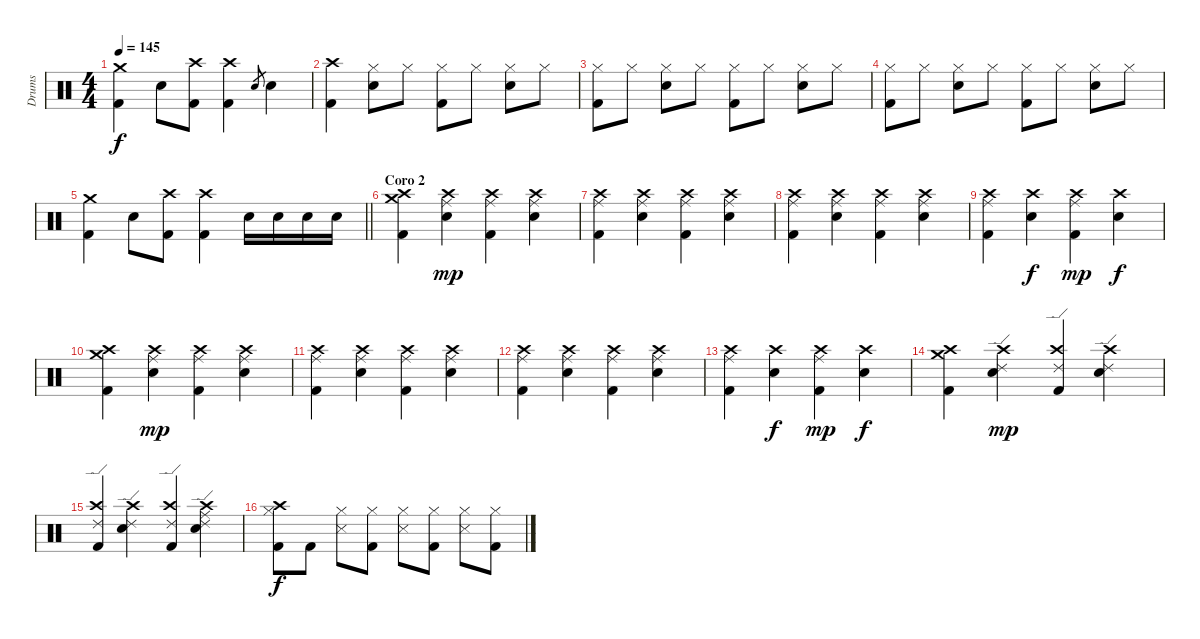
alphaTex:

\track ("Drums" "Drums") {instrument percussion}
\staff {score}
\articulation defaults
\ts (4 4)
\tempo 145
\clef neutral
\ks c
("Kick (hit) 2" "Crash medium (hit)").4{dy f} "Electric Snare (hit)".8 ("Crash high (hit)" "Kick (hit) 2").8 ("Crash high (hit)" "Kick (hit) 2").4 "Electric Snare (hit)".8{gr} "Electric Snare (hit)".4 |
("Crash high (hit)" "Kick (hit) 2").4 ("Electric Snare (hit)" "Hi-Hat (closed)").8 "Hi-Hat (closed)".8 ("Hi-Hat (closed)" "Kick (hit) 2").8 "Hi-Hat (closed)".8 ("Hi-Hat (closed)" "Electric Snare (hit)").8 "Hi-Hat (closed)".8 |
("Hi-Hat (closed)" "Kick (hit) 2").8 "Hi-Hat (closed)".8 ("Hi-Hat (closed)" "Electric Snare (hit)").8 "Hi-Hat (closed)".8 ("Hi-Hat (closed)" "Kick (hit) 2").8 "Hi-Hat (closed)".8 ("Hi-Hat (closed)" "Electric Snare (hit)").8 "Hi-Hat (closed)".8 |
("Hi-Hat (closed)" "Kick (hit) 2").8 "Hi-Hat (closed)".8 ("Hi-Hat (closed)" "Electric Snare (hit)").8 "Hi-Hat (closed)".8 ("Hi-Hat (closed)" "Kick (hit) 2").8 "Hi-Hat (closed)".8 ("Hi-Hat (closed)" "Electric Snare (hit)").8 "Hi-Hat (closed)".8 |
\barLineRight lightlight
("Kick (hit) 2" "Crash medium (hit)").4 "Electric Snare (hit)".8 ("Crash high (hit)" "Kick (hit) 2").8 ("Crash high (hit)" "Kick (hit) 2").4 "Electric Snare (hit)".16 "Electric Snare (hit)".16 "Electric Snare (hit)".16 "Electric Snare (hit)".16 |
\section ("" "Coro 2")
("Kick (hit) 2" "Crash medium (hit)" "Crash high (hit)").4 ("Crash high (hit)" "Electric Snare (hit)" "Ride (middle)").4{dy mp} ("Crash high (hit)" "Kick (hit) 2" "Ride (middle)").4 ("Crash high (hit)" "Electric Snare (hit)" "Ride (middle)").4 |
("Crash high (hit)" "Kick (hit) 2" "Ride (middle)").4 ("Crash high (hit)" "Electric Snare (hit)" "Ride (middle)").4 ("Crash high (hit)" "Kick (hit) 2" "Ride (middle)").4 ("Crash high (hit)" "Electric Snare (hit)" "Ride (middle)").4 |
("Crash high (hit)" "Kick (hit) 2" "Ride (middle)").4 ("Crash high (hit)" "Electric Snare (hit)" "Ride (middle)").4 ("Crash high (hit)" "Kick (hit) 2" "Ride (middle)").4 ("Crash high (hit)" "Electric Snare (hit)" "Ride (middle)").4 |
("Crash high (hit)" "Kick (hit) 2" "Ride (middle)").4 ("Crash high (hit)" "Electric Snare (hit)").4{dy f} ("Crash high (hit)" "Kick (hit) 2" "Ride (middle)").4{dy mp} ("Crash high (hit)" "Electric Snare (hit)").4{dy f} |
("Kick (hit) 2" "Crash medium (hit)" "Crash high (hit)").4 ("Crash high (hit)" "Electric Snare (hit)" "Ride (middle)").4{dy mp} ("Crash high (hit)" "Kick (hit) 2" "Ride (middle)").4 ("Crash high (hit)" "Electric Snare (hit)" "Ride (middle)").4 |
("Crash high (hit)" "Kick (hit) 2" "Ride (middle)").4 ("Crash high (hit)" "Electric Snare (hit)" "Ride (middle)").4 ("Crash high (hit)" "Kick (hit) 2" "Ride (middle)").4 ("Crash high (hit)" "Electric Snare (hit)" "Ride (middle)").4 |
("Crash high (hit)" "Kick (hit) 2" "Ride (middle)").4 ("Crash high (hit)" "Electric Snare (hit)" "Ride (middle)").4 ("Crash high (hit)" "Kick (hit) 2" "Ride (middle)").4 ("Crash high (hit)" "Electric Snare (hit)" "Ride (middle)").4 |
("Crash high (hit)" "Kick (hit) 2" "Ride (middle)").4 ("Crash high (hit)" "Electric Snare (hit)").4{dy f} ("Crash high (hit)" "Kick (hit) 2" "Ride (middle)").4{dy mp} ("Crash high (hit)" "Electric Snare (hit)").4{dy f} |
("Kick (hit) 2" "Crash medium (hit)" "Crash high (hit)").4 ("Crash high (hit)" "Electric Snare (hit)" "Ride (edge) 2").4{dy mp} ("Crash high (hit)" "Kick (hit) 2" "Ride (edge) 2").4 ("Crash high (hit)" "Electric Snare (hit)" "Ride (edge) 2").4 |
("Crash high (hit)" "Kick (hit) 2" "Ride (edge) 2").4 ("Crash high (hit)" "Electric Snare (hit)" "Ride (edge) 2").4 ("Crash high (hit)" "Kick (hit) 2" "Ride (edge) 2").4 ("Crash high (hit)" "Electric Snare (hit)" "Ride (edge) 2" "Ride (middle)").4 |
("Kick (hit) 2" "Crash high (hit)" "Hi-Hat (closed)").8{dy f} "Kick (hit) 2".8 ("Hi-Hat (closed)" "Snare (side stick) 3").8 ("Hi-Hat (closed)" "Kick (hit) 2").8 ("Hi-Hat (closed)" "Snare (side stick) 3").8 ("Hi-Hat (closed)" "Kick (hit) 2").8 ("Hi-Hat (closed)" "Snare (side stick) 3").8 ("Hi-Hat (closed)" "Kick (hit) 2").8
